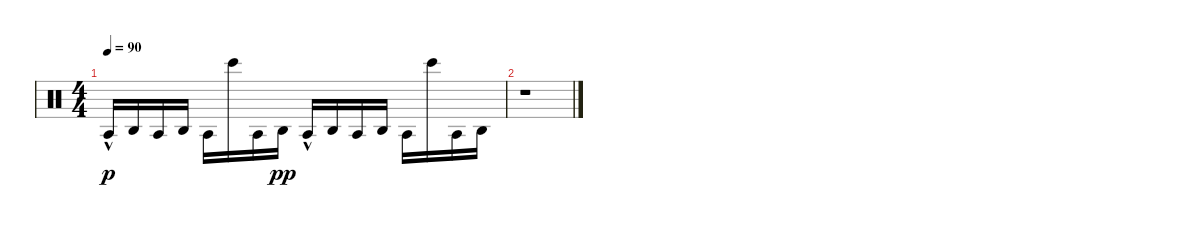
\track "" {instrument percussion}
\staff {score}
\articulation defaults
\ts (4 4)
\tempo 90
\clef neutral
\ks c "Agogo tow (hit)"{hac}.16{dy p} "Agogo high (hit)".16 "Agogo tow (hit)".16 "Agogo high (hit)".16 "Agogo tow (hit)".16 "Bongo High (hit)".16 "Agogo tow (hit)".16 "Agogo high (hit)".16{dy pp} "Agogo tow (hit)"{hac}.16 "Agogo high (hit)".16 "Agogo tow (hit)".16 "Agogo high (hit)".16 "Agogo tow (hit)".16 "Bongo High (hit)".16 "Agogo tow (hit)".16 "Agogo high (hit)".16
|
r.1
